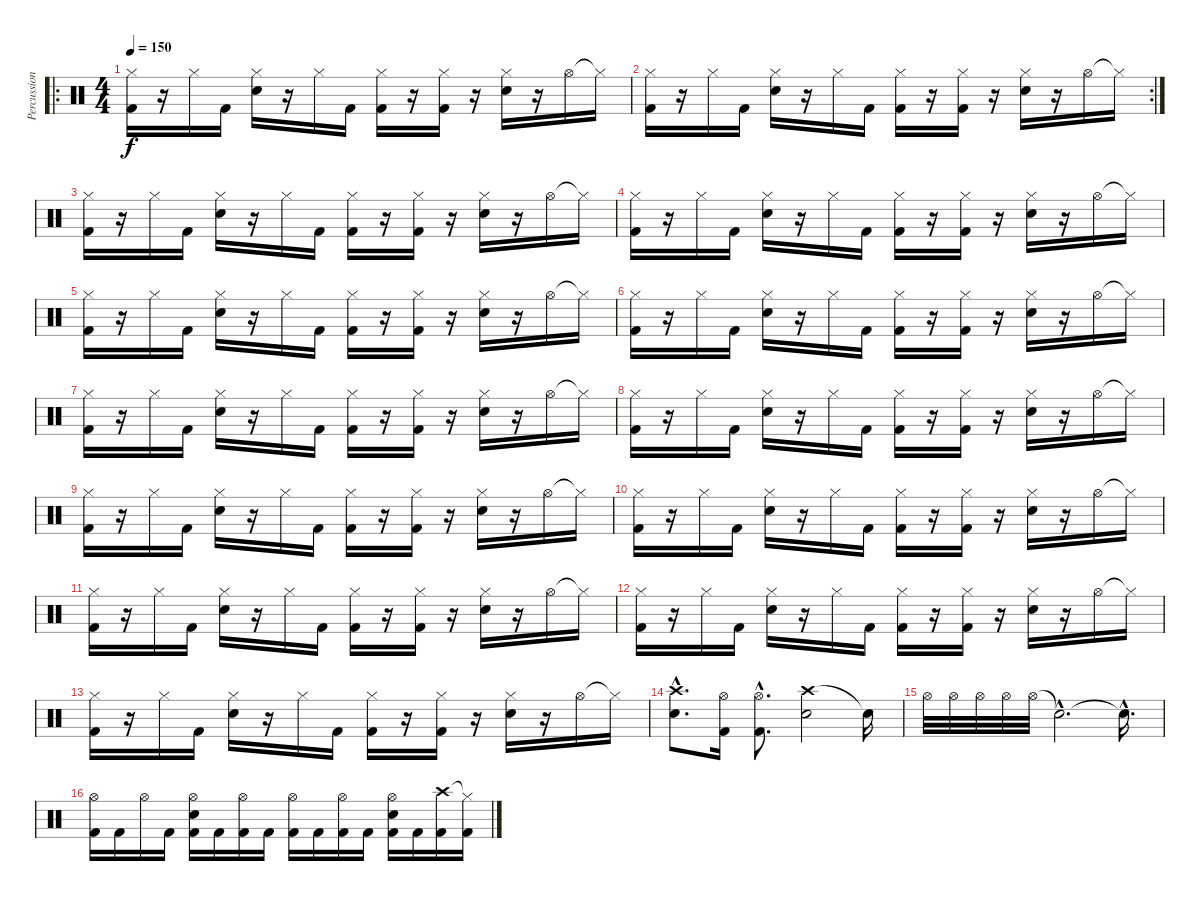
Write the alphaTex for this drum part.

\track ("Percussion" "Percussion") {instrument percussion}
\staff {score}
\articulation defaults
\ro
\ts (4 4)
\tempo 150
\clef neutral
\ks c
("Hi-Hat (closed)" "Kick (hit) 2").16{dy f} r.16 "Hi-Hat (closed)".16 "Kick (hit) 2".16 ("Hi-Hat (closed)" "Electric Snare (hit)").16 r.16 "Hi-Hat (closed)".16 "Kick (hit) 2".16 ("Hi-Hat (closed)" "Kick (hit) 2").16 r.16 ("Hi-Hat (closed)" "Kick (hit) 2").16 r.16 ("Hi-Hat (closed)" "Electric Snare (hit)").16 r.16 "Hi-Hat (open)".16 "Hi-Hat (closed)"{t}.16 |
\rc 2
("Hi-Hat (closed)" "Kick (hit) 2").16 r.16 "Hi-Hat (closed)".16 "Kick (hit) 2".16 ("Hi-Hat (closed)" "Electric Snare (hit)").16 r.16 "Hi-Hat (closed)".16 "Kick (hit) 2".16 ("Hi-Hat (closed)" "Kick (hit) 2").16 r.16 ("Hi-Hat (closed)" "Kick (hit) 2").16 r.16 ("Hi-Hat (closed)" "Electric Snare (hit)").16 r.16 "Hi-Hat (open)".16 "Hi-Hat (closed)"{t}.16 |
("Hi-Hat (closed)" "Kick (hit) 2").16 r.16 "Hi-Hat (closed)".16 "Kick (hit) 2".16 ("Hi-Hat (closed)" "Electric Snare (hit)").16 r.16 "Hi-Hat (closed)".16 "Kick (hit) 2".16 ("Hi-Hat (closed)" "Kick (hit) 2").16 r.16 ("Hi-Hat (closed)" "Kick (hit) 2").16 r.16 ("Hi-Hat (closed)" "Electric Snare (hit)").16 r.16 "Hi-Hat (open)".16 "Hi-Hat (closed)"{t}.16 |
("Hi-Hat (closed)" "Kick (hit) 2").16 r.16 "Hi-Hat (closed)".16 "Kick (hit) 2".16 ("Hi-Hat (closed)" "Electric Snare (hit)").16 r.16 "Hi-Hat (closed)".16 "Kick (hit) 2".16 ("Hi-Hat (closed)" "Kick (hit) 2").16 r.16 ("Hi-Hat (closed)" "Kick (hit) 2").16 r.16 ("Hi-Hat (closed)" "Electric Snare (hit)").16 r.16 "Hi-Hat (open)".16 "Hi-Hat (closed)"{t}.16 |
("Hi-Hat (closed)" "Kick (hit) 2").16 r.16 "Hi-Hat (closed)".16 "Kick (hit) 2".16 ("Hi-Hat (closed)" "Electric Snare (hit)").16 r.16 "Hi-Hat (closed)".16 "Kick (hit) 2".16 ("Hi-Hat (closed)" "Kick (hit) 2").16 r.16 ("Hi-Hat (closed)" "Kick (hit) 2").16 r.16 ("Hi-Hat (closed)" "Electric Snare (hit)").16 r.16 "Hi-Hat (open)".16 "Hi-Hat (closed)"{t}.16 |
("Hi-Hat (closed)" "Kick (hit) 2").16 r.16 "Hi-Hat (closed)".16 "Kick (hit) 2".16 ("Hi-Hat (closed)" "Electric Snare (hit)").16 r.16 "Hi-Hat (closed)".16 "Kick (hit) 2".16 ("Hi-Hat (closed)" "Kick (hit) 2").16 r.16 ("Hi-Hat (closed)" "Kick (hit) 2").16 r.16 ("Hi-Hat (closed)" "Electric Snare (hit)").16 r.16 "Hi-Hat (open)".16 "Hi-Hat (closed)"{t}.16 |
("Hi-Hat (closed)" "Kick (hit) 2").16 r.16 "Hi-Hat (closed)".16 "Kick (hit) 2".16 ("Hi-Hat (closed)" "Electric Snare (hit)").16 r.16 "Hi-Hat (closed)".16 "Kick (hit) 2".16 ("Hi-Hat (closed)" "Kick (hit) 2").16 r.16 ("Hi-Hat (closed)" "Kick (hit) 2").16 r.16 ("Hi-Hat (closed)" "Electric Snare (hit)").16 r.16 "Hi-Hat (open)".16 "Hi-Hat (closed)"{t}.16 |
("Hi-Hat (closed)" "Kick (hit) 2").16 r.16 "Hi-Hat (closed)".16 "Kick (hit) 2".16 ("Hi-Hat (closed)" "Electric Snare (hit)").16 r.16 "Hi-Hat (closed)".16 "Kick (hit) 2".16 ("Hi-Hat (closed)" "Kick (hit) 2").16 r.16 ("Hi-Hat (closed)" "Kick (hit) 2").16 r.16 ("Hi-Hat (closed)" "Electric Snare (hit)").16 r.16 "Hi-Hat (open)".16 "Hi-Hat (closed)"{t}.16 |
("Hi-Hat (closed)" "Kick (hit) 2").16 r.16 "Hi-Hat (closed)".16 "Kick (hit) 2".16 ("Hi-Hat (closed)" "Electric Snare (hit)").16 r.16 "Hi-Hat (closed)".16 "Kick (hit) 2".16 ("Hi-Hat (closed)" "Kick (hit) 2").16 r.16 ("Hi-Hat (closed)" "Kick (hit) 2").16 r.16 ("Hi-Hat (closed)" "Electric Snare (hit)").16 r.16 "Hi-Hat (open)".16 "Hi-Hat (closed)"{t}.16 |
("Hi-Hat (closed)" "Kick (hit) 2").16 r.16 "Hi-Hat (closed)".16 "Kick (hit) 2".16 ("Hi-Hat (closed)" "Electric Snare (hit)").16 r.16 "Hi-Hat (closed)".16 "Kick (hit) 2".16 ("Hi-Hat (closed)" "Kick (hit) 2").16 r.16 ("Hi-Hat (closed)" "Kick (hit) 2").16 r.16 ("Hi-Hat (closed)" "Electric Snare (hit)").16 r.16 "Hi-Hat (open)".16 "Hi-Hat (closed)"{t}.16 |
("Hi-Hat (closed)" "Kick (hit) 2").16 r.16 "Hi-Hat (closed)".16 "Kick (hit) 2".16 ("Hi-Hat (closed)" "Electric Snare (hit)").16 r.16 "Hi-Hat (closed)".16 "Kick (hit) 2".16 ("Hi-Hat (closed)" "Kick (hit) 2").16 r.16 ("Hi-Hat (closed)" "Kick (hit) 2").16 r.16 ("Hi-Hat (closed)" "Electric Snare (hit)").16 r.16 "Hi-Hat (open)".16 "Hi-Hat (closed)"{t}.16 |
("Hi-Hat (closed)" "Kick (hit) 2").16 r.16 "Hi-Hat (closed)".16 "Kick (hit) 2".16 ("Hi-Hat (closed)" "Electric Snare (hit)").16 r.16 "Hi-Hat (closed)".16 "Kick (hit) 2".16 ("Hi-Hat (closed)" "Kick (hit) 2").16 r.16 ("Hi-Hat (closed)" "Kick (hit) 2").16 r.16 ("Hi-Hat (closed)" "Electric Snare (hit)").16 r.16 "Hi-Hat (open)".16 "Hi-Hat (closed)"{t}.16 |
("Hi-Hat (closed)" "Kick (hit) 2").16 r.16 "Hi-Hat (closed)".16 "Kick (hit) 2".16 ("Hi-Hat (closed)" "Electric Snare (hit)").16 r.16 "Hi-Hat (closed)".16 "Kick (hit) 2".16 ("Hi-Hat (closed)" "Kick (hit) 2").16 r.16 ("Hi-Hat (closed)" "Kick (hit) 2").16 r.16 ("Hi-Hat (closed)" "Electric Snare (hit)").16 r.16 "Hi-Hat (open)".16 "Hi-Hat (closed)"{t}.16 |
("Crash high (hit)"{hac} "Electric Snare (hit)"{hac}).8{d} ("Hi-Hat (open)" "Kick (hit) 2").16 ("Hi-Hat (open)"{hac} "Kick (hit) 2"{hac}).8{d} ("Crash high (hit)" "Electric Snare (hit)").2 "Snare (hit)"{t}.16 |
"Hi-Hat (open)".32 "Hi-Hat (open)".32 "Hi-Hat (open)".32 "Hi-Hat (open)".32 "Hi-Hat (open)".32 "Snare (hit)"{hac t}.2{d} "Snare (hit)"{hac t}.16{d} |
("Hi-Hat (open)" "Kick (hit) 2").16 "Kick (hit) 2".16 "Hi-Hat (open)".16 "Kick (hit) 2".16 ("Hi-Hat (open)" "Electric Snare (hit)" "Kick (hit) 2").16 "Kick (hit) 2".16 ("Hi-Hat (open)" "Kick (hit) 2").16 "Kick (hit) 2".16 ("Hi-Hat (open)" "Kick (hit) 2").16 "Kick (hit) 2".16 ("Hi-Hat (open)" "Kick (hit) 2").16 "Kick (hit) 2".16 ("Hi-Hat (open)" "Electric Snare (hit)" "Kick (hit) 2").16 "Kick (hit) 2".16 ("Crash high (hit)" "Kick (hit) 2").16 ("Hi-Hat (closed)"{t} "Kick (hit) 2").16
